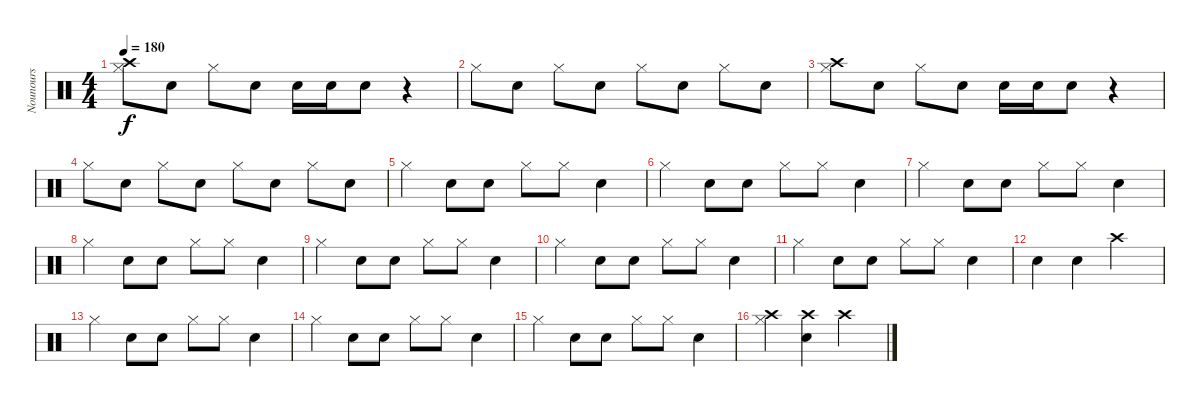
\track ("Nounours" "Nounours") {instrument percussion}
\staff {score}
\articulation defaults
\ts (4 4)
\tempo 180
\clef neutral
\ks c
("Crash high (hit)" "Hi-Hat (closed)").8{dy f} "Snare (hit) 2".8 "Hi-Hat (closed)".8 "Snare (hit) 2".8 "Snare (hit) 2".16 "Snare (hit) 2".16 "Snare (hit) 2".8 r.4 |
"Hi-Hat (closed)".8 "Snare (hit) 2".8 "Hi-Hat (closed)".8 "Snare (hit) 2".8 "Hi-Hat (closed)".8 "Snare (hit) 2".8 "Hi-Hat (closed)".8 "Snare (hit) 2".8 |
("Crash high (hit)" "Hi-Hat (closed)").8 "Snare (hit) 2".8 "Hi-Hat (closed)".8 "Snare (hit) 2".8 "Snare (hit) 2".16 "Snare (hit) 2".16 "Snare (hit) 2".8 r.4 |
"Hi-Hat (closed)".8 "Snare (hit) 2".8 "Hi-Hat (closed)".8 "Snare (hit) 2".8 "Hi-Hat (closed)".8 "Snare (hit) 2".8 "Hi-Hat (closed)".8 "Snare (hit) 2".8 |
"Hi-Hat (closed)".4 "Snare (hit) 2".8 "Snare (hit) 2".8 "Hi-Hat (closed)".8 "Hi-Hat (closed)".8 "Snare (hit) 2".4 |
"Hi-Hat (closed)".4 "Snare (hit) 2".8 "Snare (hit) 2".8 "Hi-Hat (closed)".8 "Hi-Hat (closed)".8 "Snare (hit) 2".4 |
"Hi-Hat (closed)".4 "Snare (hit) 2".8 "Snare (hit) 2".8 "Hi-Hat (closed)".8 "Hi-Hat (closed)".8 "Snare (hit) 2".4 |
"Hi-Hat (closed)".4 "Snare (hit) 2".8 "Snare (hit) 2".8 "Hi-Hat (closed)".8 "Hi-Hat (closed)".8 "Snare (hit) 2".4 |
"Hi-Hat (closed)".4 "Snare (hit) 2".8 "Snare (hit) 2".8 "Hi-Hat (closed)".8 "Hi-Hat (closed)".8 "Snare (hit) 2".4 |
"Hi-Hat (closed)".4 "Snare (hit) 2".8 "Snare (hit) 2".8 "Hi-Hat (closed)".8 "Hi-Hat (closed)".8 "Snare (hit) 2".4 |
"Hi-Hat (closed)".4 "Snare (hit) 2".8 "Snare (hit) 2".8 "Hi-Hat (closed)".8 "Hi-Hat (closed)".8 "Snare (hit) 2".4 |
"Snare (hit) 2".4 "Snare (hit) 2".4 "Crash high (hit)".2 |
"Hi-Hat (closed)".4 "Snare (hit) 2".8 "Snare (hit) 2".8 "Hi-Hat (closed)".8 "Hi-Hat (closed)".8 "Snare (hit) 2".4 |
"Hi-Hat (closed)".4 "Snare (hit) 2".8 "Snare (hit) 2".8 "Hi-Hat (closed)".8 "Hi-Hat (closed)".8 "Snare (hit) 2".4 |
"Hi-Hat (closed)".4 "Snare (hit) 2".8 "Snare (hit) 2".8 "Hi-Hat (closed)".8 "Hi-Hat (closed)".8 "Snare (hit) 2".4 |
("Crash high (hit)" "Hi-Hat (closed)").4 ("Crash high (hit)" "Snare (hit) 2").4 "Crash high (hit)".2
